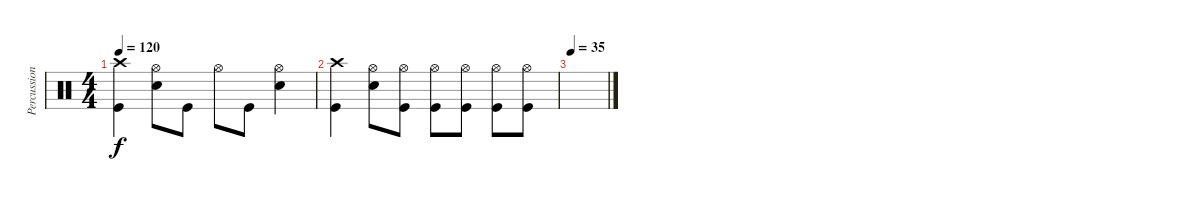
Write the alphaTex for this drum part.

\track ("Percussion" "Percussion") {instrument percussion}
\staff {score}
\articulation defaults
\ts (4 4)
\tempo 120
\clef neutral
\ks c
("Crash high (hit)" "Kick (hit)").4{dy f} ("Hi-Hat (open)" "Snare (hit) 2").8 "Kick (hit)".8 "Hi-Hat (open)".8 "Kick (hit)".8 ("Hi-Hat (open)" "Snare (hit) 2").4 |
("Crash high (hit)" "Kick (hit)").4 ("Hi-Hat (open)" "Snare (hit) 2").8 ("Hi-Hat (open)" "Kick (hit)").8 ("Hi-Hat (open)" "Kick (hit)").8 ("Hi-Hat (open)" "Kick (hit)").8 ("Hi-Hat (open)" "Kick (hit)").8 ("Hi-Hat (open)" "Kick (hit)").8 |
\tempo 35
